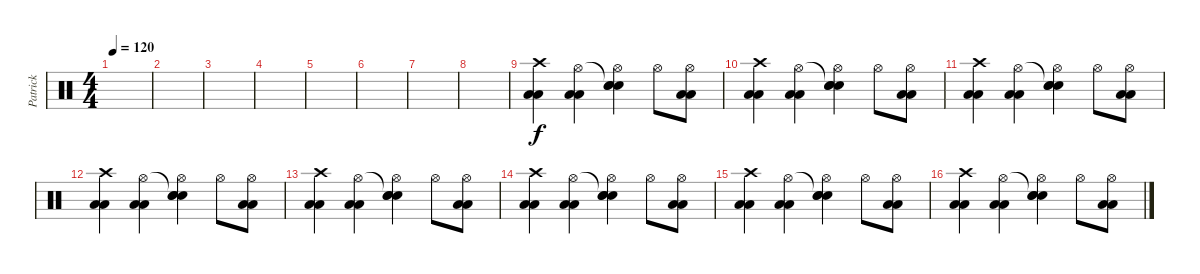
\track ("Patrick" "Patrick") {instrument percussion}
\staff {score}
\articulation defaults
\ts (4 4)
\tempo 120
\clef neutral
\ks c
|
|
|
|
|
|
|
|
("Crash high (hit)" "Low Floor Tom (hit)" "Low Floor Tom (hit)").4 ("Hi-Hat (open)" "Low Floor Tom (hit)" "Low Floor Tom (hit)").4 ("Snare (hit)"{t} "Hi-Hat (open)" "Electric Snare (hit)" "Electric Snare (hit)").4 "Hi-Hat (open)".8 ("Hi-Hat (open)" "Low Floor Tom (hit)" "Low Floor Tom (hit)").8 |
("Crash high (hit)" "Low Floor Tom (hit)" "Low Floor Tom (hit)").4 ("Hi-Hat (open)" "Low Floor Tom (hit)" "Low Floor Tom (hit)").4 ("Snare (hit)"{t} "Hi-Hat (open)" "Electric Snare (hit)" "Electric Snare (hit)").4 "Hi-Hat (open)".8 ("Hi-Hat (open)" "Low Floor Tom (hit)" "Low Floor Tom (hit)").8 |
("Crash high (hit)" "Low Floor Tom (hit)" "Low Floor Tom (hit)").4 ("Hi-Hat (open)" "Low Floor Tom (hit)" "Low Floor Tom (hit)").4 ("Snare (hit)"{t} "Hi-Hat (open)" "Electric Snare (hit)" "Electric Snare (hit)").4 "Hi-Hat (open)".8 ("Hi-Hat (open)" "Low Floor Tom (hit)" "Low Floor Tom (hit)").8 |
("Crash high (hit)" "Low Floor Tom (hit)" "Low Floor Tom (hit)").4 ("Hi-Hat (open)" "Low Floor Tom (hit)" "Low Floor Tom (hit)").4 ("Snare (hit)"{t} "Hi-Hat (open)" "Electric Snare (hit)" "Electric Snare (hit)").4 "Hi-Hat (open)".8 ("Hi-Hat (open)" "Low Floor Tom (hit)" "Low Floor Tom (hit)").8 |
("Crash high (hit)" "Low Floor Tom (hit)" "Low Floor Tom (hit)").4 ("Hi-Hat (open)" "Low Floor Tom (hit)" "Low Floor Tom (hit)").4 ("Snare (hit)"{t} "Hi-Hat (open)" "Electric Snare (hit)" "Electric Snare (hit)").4 "Hi-Hat (open)".8 ("Hi-Hat (open)" "Low Floor Tom (hit)" "Low Floor Tom (hit)").8 |
("Crash high (hit)" "Low Floor Tom (hit)" "Low Floor Tom (hit)").4 ("Hi-Hat (open)" "Low Floor Tom (hit)" "Low Floor Tom (hit)").4 ("Snare (hit)"{t} "Hi-Hat (open)" "Electric Snare (hit)" "Electric Snare (hit)").4 "Hi-Hat (open)".8 ("Hi-Hat (open)" "Low Floor Tom (hit)" "Low Floor Tom (hit)").8 |
("Crash high (hit)" "Low Floor Tom (hit)" "Low Floor Tom (hit)").4 ("Hi-Hat (open)" "Low Floor Tom (hit)" "Low Floor Tom (hit)").4 ("Snare (hit)"{t} "Hi-Hat (open)" "Electric Snare (hit)" "Electric Snare (hit)").4 "Hi-Hat (open)".8 ("Hi-Hat (open)" "Low Floor Tom (hit)" "Low Floor Tom (hit)").8 |
("Crash high (hit)" "Low Floor Tom (hit)" "Low Floor Tom (hit)").4 ("Hi-Hat (open)" "Low Floor Tom (hit)" "Low Floor Tom (hit)").4 ("Snare (hit)"{t} "Hi-Hat (open)" "Electric Snare (hit)" "Electric Snare (hit)").4 "Hi-Hat (open)".8 ("Hi-Hat (open)" "Low Floor Tom (hit)" "Low Floor Tom (hit)").8
